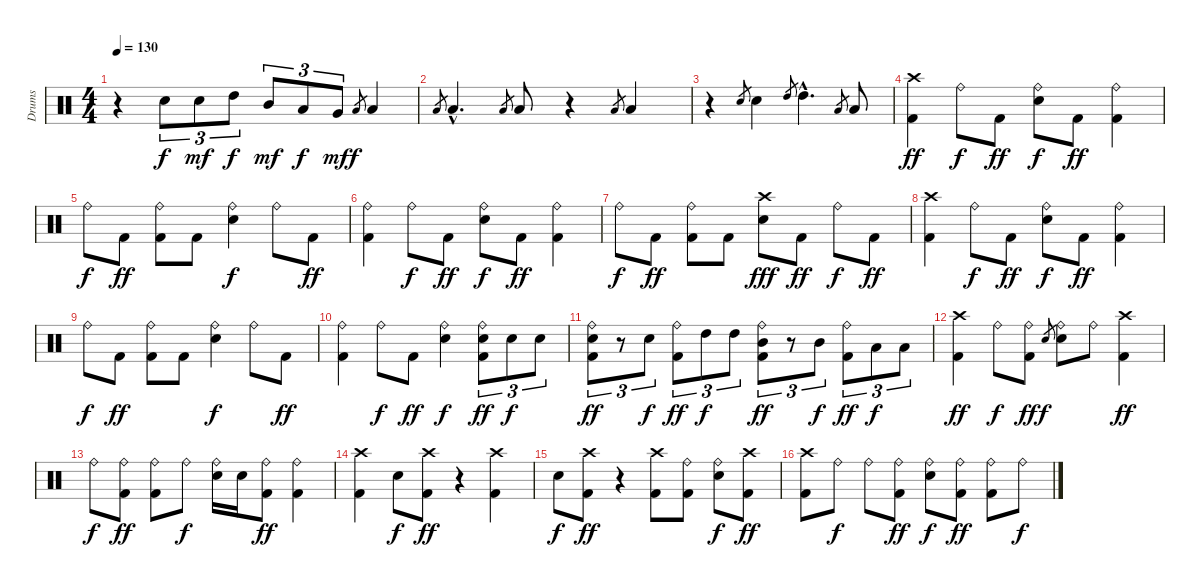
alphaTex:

\track ("Drums" "Drums") {instrument percussion}
\staff {score}
\articulation defaults
\ts (4 4)
\tempo 130
\clef neutral
\ks c
r.4{dy f} "Snare (hit) 2".8{tu (3 2)} "Snare (hit) 2".8{tu (3 2) dy mf} "High Tom (hit)".8{tu (3 2) dy f} "Mid Tom (hit)".8{tu (3 2) dy mf} "Low Tom (hit)".8{tu (3 2) dy f} "Very Low Tom (hit)".8{tu (3 2) dy mf} "Low Floor Tom (hit)".8{gr dy f} "Low Floor Tom (hit)".4 |
"Low Tom (hit)".8{gr} "Low Tom (hit)"{hac}.4{d} "Low Tom (hit)".8{gr} "Low Tom (hit)".8 r.4 "Low Tom (hit)".8{gr} "Low Tom (hit)".4 |
r.4 "Snare (hit) 2".8{gr} "Snare (hit) 2".4 "High Tom (hit)".8{gr} "High Tom (hit)"{hac}.4{d} "Low Floor Tom (hit)".8{gr} "Low Floor Tom (hit)".8 |
("Crash high (hit)" "Kick (hit) 2").4{dy ff} "Ride (bell)".8{dy f} "Kick (hit) 2".8{dy ff} ("Ride (bell)" "Snare (hit) 2").8{dy f} "Kick (hit) 2".8{dy ff} ("Ride (bell)" "Kick (hit) 2").4 |
"Ride (bell)".8{dy f} "Kick (hit) 2".8{dy ff} ("Ride (bell)" "Kick (hit) 2").8 "Kick (hit) 2".8 ("Ride (bell)" "Snare (hit) 2").4{dy f} "Ride (bell)".8 "Kick (hit) 2".8{dy ff} |
("Ride (bell)" "Kick (hit) 2").4 "Ride (bell)".8{dy f} "Kick (hit) 2".8{dy ff} ("Ride (bell)" "Snare (hit) 2").8{dy f} "Kick (hit) 2".8{dy ff} ("Ride (bell)" "Kick (hit) 2").4 |
"Ride (bell)".8{dy f} "Kick (hit) 2".8{dy ff} ("Ride (bell)" "Kick (hit) 2").8 "Kick (hit) 2".8 ("Crash high (hit)" "Snare (hit) 2").8{dy fff} "Kick (hit) 2".8{dy ff} "Ride (bell)".8{dy f} "Kick (hit) 2".8{dy ff} |
("Crash high (hit)" "Kick (hit) 2").4 "Ride (bell)".8{dy f} "Kick (hit) 2".8{dy ff} ("Ride (bell)" "Snare (hit) 2").8{dy f} "Kick (hit) 2".8{dy ff} ("Ride (bell)" "Kick (hit) 2").4 |
"Ride (bell)".8{dy f} "Kick (hit) 2".8{dy ff} ("Ride (bell)" "Kick (hit) 2").8 "Kick (hit) 2".8 ("Ride (bell)" "Snare (hit) 2").4{dy f} "Ride (bell)".8 "Kick (hit) 2".8{dy ff} |
("Ride (bell)" "Kick (hit) 2").4 "Ride (bell)".8{dy f} "Kick (hit) 2".8{dy ff} ("Ride (bell)" "Snare (hit) 2").4{dy f} ("Ride (bell)" "Snare (hit) 2" "Kick (hit) 2").8{tu (3 2) dy ff} "Snare (hit) 2".8{tu (3 2) dy f} "Snare (hit) 2".8{tu (3 2)} |
("Ride (bell)" "Snare (hit) 2" "Kick (hit) 2").8{tu (3 2) dy ff} r.8{tu (3 2)} "Snare (hit) 2".8{tu (3 2) dy f} ("Ride (bell)" "Kick (hit) 2").8{tu (3 2) dy ff} "High Tom (hit)".8{tu (3 2) dy f} "High Tom (hit)".8{tu (3 2)} ("Ride (bell)" "Mid Tom (hit)" "Kick (hit) 2").8{tu (3 2) dy ff} r.8{tu (3 2)} "Mid Tom (hit)".8{tu (3 2) dy f} ("Ride (bell)" "Kick (hit) 2").8{tu (3 2) dy ff} "Low Tom (hit)".8{tu (3 2) dy f} "Low Tom (hit)".8{tu (3 2)} |
("Crash high (hit)" "Kick (hit) 2").4{dy ff} "Ride (bell)".8{dy f} ("Ride (bell)" "Kick (hit) 2").8{dy ff} "Snare (hit) 2".8{gr dy f} ("Ride (bell)" "Snare (hit) 2").8 "Ride (bell)".8 ("Crash high (hit)" "Kick (hit) 2").4{dy ff} |
"Ride (bell)".8{dy f} ("Ride (bell)" "Kick (hit) 2").8{dy ff} ("Ride (bell)" "Kick (hit) 2").8 "Ride (bell)".8{dy f} ("Ride (bell)" "Snare (hit) 2").16 "Snare (hit) 2".16 ("Ride (bell)" "Kick (hit) 2").8{dy ff} ("Ride (bell)" "Kick (hit) 2").4 |
("Crash high (hit)" "Kick (hit) 2").4 "Snare (hit) 2".8{dy f} ("Crash high (hit)" "Kick (hit) 2").8{dy ff} r.4 ("Crash high (hit)" "Kick (hit) 2").4 |
"Snare (hit) 2".8{dy f} ("Crash high (hit)" "Kick (hit) 2").8{dy ff} r.4 ("Crash high (hit)" "Kick (hit) 2").8 ("Ride (bell)" "Kick (hit) 2").8 ("Ride (bell)" "Snare (hit) 2").8{dy f} ("Crash high (hit)" "Kick (hit) 2").8{dy ff} |
("Crash high (hit)" "Kick (hit) 2").8 "Ride (bell)".8{dy f} "Ride (bell)".8 ("Ride (bell)" "Kick (hit) 2").8{dy ff} ("Ride (bell)" "Snare (hit) 2").8{dy f} ("Ride (bell)" "Kick (hit) 2").8{dy ff} ("Ride (bell)" "Kick (hit) 2").8 "Ride (bell)".8{dy f}
